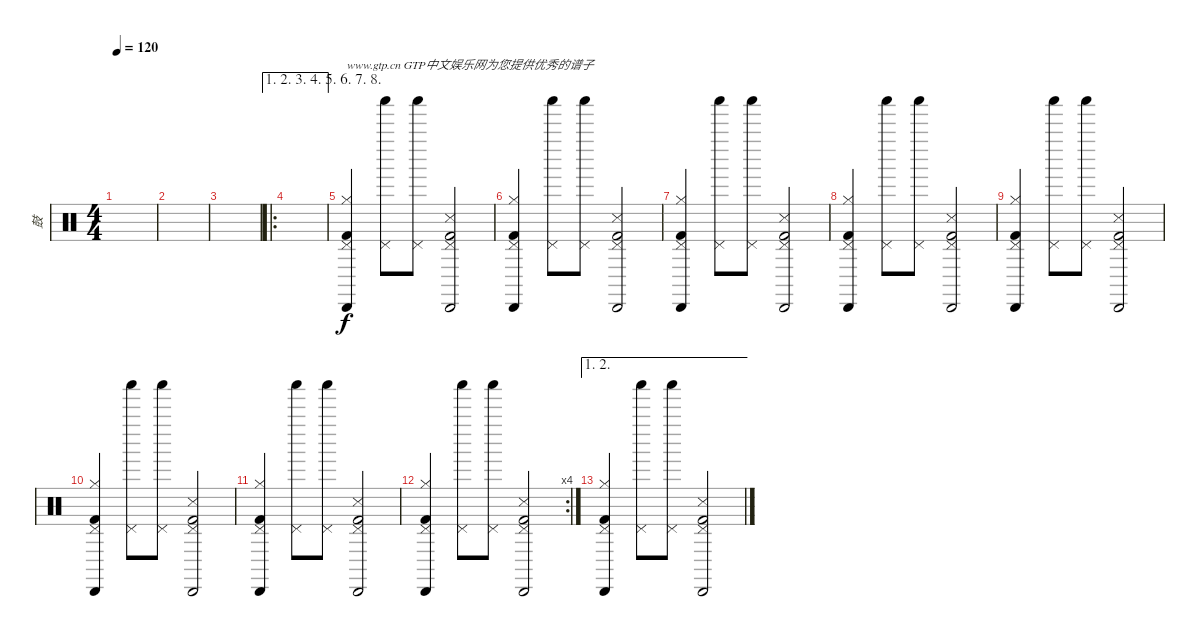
\track ("鼓" "鼓") {instrument percussion}
\staff {score}
\articulation defaults
\ts (4 4)
\tempo 120
\clef neutral
\ks c
|
|
|
\ae (1 2 3 4 5 6 7 8)
\ro
|
("Kick (hit) 2" "Pedal Hi-Hat (hit)" "Hi-Hat (closed)" "Cabasa (hit)").4{txt "www.gtp.cn GTP中文娱乐网为您提供优秀的谱子"} ("Pedal Hi-Hat (hit)" "Shaker (hit)").8 ("Pedal Hi-Hat (hit)" "Shaker (hit)").8 ("Kick (hit) 2" "Pedal Hi-Hat (hit)" "Snare (side stick) 3" "Cabasa (hit)").2 |
("Kick (hit) 2" "Pedal Hi-Hat (hit)" "Hi-Hat (closed)" "Cabasa (hit)").4 ("Pedal Hi-Hat (hit)" "Shaker (hit)").8 ("Pedal Hi-Hat (hit)" "Shaker (hit)").8 ("Kick (hit) 2" "Pedal Hi-Hat (hit)" "Snare (side stick) 3" "Cabasa (hit)").2 |
("Kick (hit) 2" "Pedal Hi-Hat (hit)" "Hi-Hat (closed)" "Cabasa (hit)").4 ("Pedal Hi-Hat (hit)" "Shaker (hit)").8 ("Pedal Hi-Hat (hit)" "Shaker (hit)").8 ("Kick (hit) 2" "Pedal Hi-Hat (hit)" "Snare (side stick) 3" "Cabasa (hit)").2 |
("Kick (hit) 2" "Pedal Hi-Hat (hit)" "Hi-Hat (closed)" "Cabasa (hit)").4 ("Pedal Hi-Hat (hit)" "Shaker (hit)").8 ("Pedal Hi-Hat (hit)" "Shaker (hit)").8 ("Kick (hit) 2" "Pedal Hi-Hat (hit)" "Snare (side stick) 3" "Cabasa (hit)").2 |
("Kick (hit) 2" "Pedal Hi-Hat (hit)" "Hi-Hat (closed)" "Cabasa (hit)").4 ("Pedal Hi-Hat (hit)" "Shaker (hit)").8 ("Pedal Hi-Hat (hit)" "Shaker (hit)").8 ("Kick (hit) 2" "Pedal Hi-Hat (hit)" "Snare (side stick) 3" "Cabasa (hit)").2 |
("Kick (hit) 2" "Pedal Hi-Hat (hit)" "Hi-Hat (closed)" "Cabasa (hit)").4 ("Pedal Hi-Hat (hit)" "Shaker (hit)").8 ("Pedal Hi-Hat (hit)" "Shaker (hit)").8 ("Kick (hit) 2" "Pedal Hi-Hat (hit)" "Snare (side stick) 3" "Cabasa (hit)").2 |
("Kick (hit) 2" "Pedal Hi-Hat (hit)" "Hi-Hat (closed)" "Cabasa (hit)").4 ("Pedal Hi-Hat (hit)" "Shaker (hit)").8 ("Pedal Hi-Hat (hit)" "Shaker (hit)").8 ("Kick (hit) 2" "Pedal Hi-Hat (hit)" "Snare (side stick) 3" "Cabasa (hit)").2 |
\rc 4
("Kick (hit) 2" "Pedal Hi-Hat (hit)" "Hi-Hat (closed)" "Cabasa (hit)").4 ("Pedal Hi-Hat (hit)" "Shaker (hit)").8 ("Pedal Hi-Hat (hit)" "Shaker (hit)").8 ("Kick (hit) 2" "Pedal Hi-Hat (hit)" "Snare (side stick) 3" "Cabasa (hit)").2 |
\ae (1 2)
("Kick (hit) 2" "Pedal Hi-Hat (hit)" "Hi-Hat (closed)" "Cabasa (hit)").4 ("Pedal Hi-Hat (hit)" "Shaker (hit)").8 ("Pedal Hi-Hat (hit)" "Shaker (hit)").8 ("Kick (hit) 2" "Pedal Hi-Hat (hit)" "Snare (side stick) 3" "Cabasa (hit)").2
